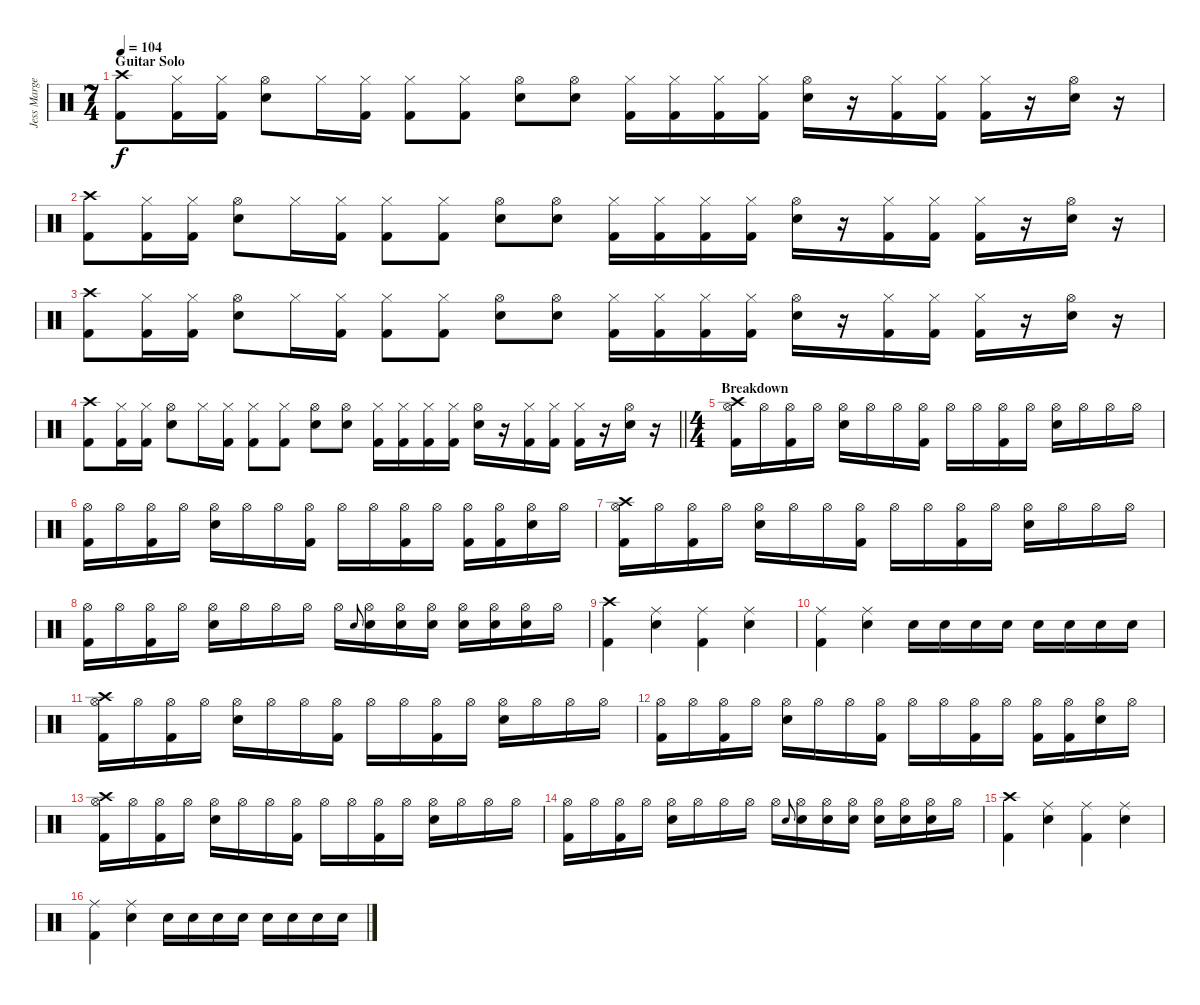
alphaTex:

\track ("Jess Margera" "Jess Marge") {instrument percussion}
\staff {score}
\articulation defaults
\ts (7 4)
\section ("" "Guitar Solo")
\tempo 104
\clef neutral
\ks c
("Crash high (hit)" "Kick (hit) 2").8{dy f} ("Hi-Hat (closed)" "Kick (hit) 2").16 ("Hi-Hat (closed)" "Kick (hit) 2").16 ("Hi-Hat (open)" "Electric Snare (hit)").8 "Hi-Hat (closed)".16 ("Hi-Hat (closed)" "Kick (hit) 2").16 ("Hi-Hat (closed)" "Kick (hit) 2").8 ("Hi-Hat (closed)" "Kick (hit) 2").8 ("Hi-Hat (open)" "Electric Snare (hit)").8 ("Hi-Hat (open)" "Electric Snare (hit)").8 ("Hi-Hat (closed)" "Kick (hit) 2").16 ("Hi-Hat (closed)" "Kick (hit) 2").16 ("Hi-Hat (closed)" "Kick (hit) 2").16 ("Hi-Hat (closed)" "Kick (hit) 2").16 ("Hi-Hat (open)" "Electric Snare (hit)").16 r.16 ("Hi-Hat (closed)" "Kick (hit) 2").16 ("Hi-Hat (closed)" "Kick (hit) 2").16 ("Hi-Hat (closed)" "Kick (hit) 2").16 r.16 ("Hi-Hat (open)" "Electric Snare (hit)").16 r.16 |
("Crash high (hit)" "Kick (hit) 2").8 ("Hi-Hat (closed)" "Kick (hit) 2").16 ("Hi-Hat (closed)" "Kick (hit) 2").16 ("Hi-Hat (open)" "Electric Snare (hit)").8 "Hi-Hat (closed)".16 ("Hi-Hat (closed)" "Kick (hit) 2").16 ("Hi-Hat (closed)" "Kick (hit) 2").8 ("Hi-Hat (closed)" "Kick (hit) 2").8 ("Hi-Hat (open)" "Electric Snare (hit)").8 ("Hi-Hat (open)" "Electric Snare (hit)").8 ("Hi-Hat (closed)" "Kick (hit) 2").16 ("Hi-Hat (closed)" "Kick (hit) 2").16 ("Hi-Hat (closed)" "Kick (hit) 2").16 ("Hi-Hat (closed)" "Kick (hit) 2").16 ("Hi-Hat (open)" "Electric Snare (hit)").16 r.16 ("Hi-Hat (closed)" "Kick (hit) 2").16 ("Hi-Hat (closed)" "Kick (hit) 2").16 ("Hi-Hat (closed)" "Kick (hit) 2").16 r.16 ("Hi-Hat (open)" "Electric Snare (hit)").16 r.16 |
("Crash high (hit)" "Kick (hit) 2").8 ("Hi-Hat (closed)" "Kick (hit) 2").16 ("Hi-Hat (closed)" "Kick (hit) 2").16 ("Hi-Hat (open)" "Electric Snare (hit)").8 "Hi-Hat (closed)".16 ("Hi-Hat (closed)" "Kick (hit) 2").16 ("Hi-Hat (closed)" "Kick (hit) 2").8 ("Hi-Hat (closed)" "Kick (hit) 2").8 ("Hi-Hat (open)" "Electric Snare (hit)").8 ("Hi-Hat (open)" "Electric Snare (hit)").8 ("Hi-Hat (closed)" "Kick (hit) 2").16 ("Hi-Hat (closed)" "Kick (hit) 2").16 ("Hi-Hat (closed)" "Kick (hit) 2").16 ("Hi-Hat (closed)" "Kick (hit) 2").16 ("Hi-Hat (open)" "Electric Snare (hit)").16 r.16 ("Hi-Hat (closed)" "Kick (hit) 2").16 ("Hi-Hat (closed)" "Kick (hit) 2").16 ("Hi-Hat (closed)" "Kick (hit) 2").16 r.16 ("Hi-Hat (open)" "Electric Snare (hit)").16 r.16 |
\barLineRight lightlight
("Crash high (hit)" "Kick (hit) 2").8 ("Hi-Hat (closed)" "Kick (hit) 2").16 ("Hi-Hat (closed)" "Kick (hit) 2").16 ("Hi-Hat (open)" "Electric Snare (hit)").8 "Hi-Hat (closed)".16 ("Hi-Hat (closed)" "Kick (hit) 2").16 ("Hi-Hat (closed)" "Kick (hit) 2").8 ("Hi-Hat (closed)" "Kick (hit) 2").8 ("Hi-Hat (open)" "Electric Snare (hit)").8 ("Hi-Hat (open)" "Electric Snare (hit)").8 ("Hi-Hat (closed)" "Kick (hit) 2").16 ("Hi-Hat (closed)" "Kick (hit) 2").16 ("Hi-Hat (closed)" "Kick (hit) 2").16 ("Hi-Hat (closed)" "Kick (hit) 2").16 ("Hi-Hat (open)" "Electric Snare (hit)").16 r.16 ("Hi-Hat (closed)" "Kick (hit) 2").16 ("Hi-Hat (closed)" "Kick (hit) 2").16 ("Hi-Hat (closed)" "Kick (hit) 2").16 r.16 ("Hi-Hat (open)" "Electric Snare (hit)").16 r.16 |
\ts (4 4)
\section ("" "Breakdown")
("Crash high (hit)" "Hi-Hat (open)" "Kick (hit) 2").16 "Hi-Hat (open)".16 ("Hi-Hat (open)" "Kick (hit) 2").16 "Hi-Hat (open)".16 ("Hi-Hat (open)" "Electric Snare (hit)").16 "Hi-Hat (open)".16 "Hi-Hat (open)".16 ("Hi-Hat (open)" "Kick (hit) 2").16 "Hi-Hat (open)".16 "Hi-Hat (open)".16 ("Hi-Hat (open)" "Kick (hit) 2").16 "Hi-Hat (open)".16 ("Hi-Hat (open)" "Electric Snare (hit)").16 "Hi-Hat (open)".16 "Hi-Hat (open)".16 "Hi-Hat (open)".16 |
("Hi-Hat (open)" "Kick (hit) 2").16 "Hi-Hat (open)".16 ("Hi-Hat (open)" "Kick (hit) 2").16 "Hi-Hat (open)".16 ("Hi-Hat (open)" "Electric Snare (hit)").16 "Hi-Hat (open)".16 "Hi-Hat (open)".16 ("Hi-Hat (open)" "Kick (hit) 2").16 "Hi-Hat (open)".16 "Hi-Hat (open)".16 ("Hi-Hat (open)" "Kick (hit) 2").16 "Hi-Hat (open)".16 ("Hi-Hat (open)" "Kick (hit) 2").16 ("Hi-Hat (open)" "Kick (hit) 2").16 ("Hi-Hat (open)" "Electric Snare (hit)").16 "Hi-Hat (open)".16 |
("Crash high (hit)" "Hi-Hat (open)" "Kick (hit) 2").16 "Hi-Hat (open)".16 ("Hi-Hat (open)" "Kick (hit) 2").16 "Hi-Hat (open)".16 ("Hi-Hat (open)" "Electric Snare (hit)").16 "Hi-Hat (open)".16 "Hi-Hat (open)".16 ("Hi-Hat (open)" "Kick (hit) 2").16 "Hi-Hat (open)".16 "Hi-Hat (open)".16 ("Hi-Hat (open)" "Kick (hit) 2").16 "Hi-Hat (open)".16 ("Hi-Hat (open)" "Electric Snare (hit)").16 "Hi-Hat (open)".16 "Hi-Hat (open)".16 "Hi-Hat (open)".16 |
("Hi-Hat (open)" "Kick (hit) 2").16 "Hi-Hat (open)".16 ("Hi-Hat (open)" "Kick (hit) 2").16 "Hi-Hat (open)".16 ("Hi-Hat (open)" "Electric Snare (hit)").16 "Hi-Hat (open)".16 "Hi-Hat (open)".16 "Hi-Hat (open)".16 "Hi-Hat (open)".16 "Electric Snare (hit)".8{gr onbeat} ("Hi-Hat (open)" "Electric Snare (hit)").16 ("Hi-Hat (open)" "Electric Snare (hit)").16 ("Hi-Hat (open)" "Electric Snare (hit)").16 ("Hi-Hat (open)" "Electric Snare (hit)").16 ("Hi-Hat (open)" "Electric Snare (hit)").16 ("Hi-Hat (open)" "Electric Snare (hit)").16 "Hi-Hat (open)".16 |
("Crash high (hit)" "Kick (hit) 2").4 ("Ride (middle)" "Electric Snare (hit)").4 ("Ride (middle)" "Kick (hit) 2").4 ("Ride (middle)" "Electric Snare (hit)").4 |
("Ride (middle)" "Kick (hit) 2").4 ("Ride (middle)" "Electric Snare (hit)").4 "Electric Snare (hit)".16 "Electric Snare (hit)".16 "Electric Snare (hit)".16 "Electric Snare (hit)".16 "Electric Snare (hit)".16 "Electric Snare (hit)".16 "Electric Snare (hit)".16 "Electric Snare (hit)".16 |
("Crash high (hit)" "Hi-Hat (open)" "Kick (hit) 2").16 "Hi-Hat (open)".16 ("Hi-Hat (open)" "Kick (hit) 2").16 "Hi-Hat (open)".16 ("Hi-Hat (open)" "Electric Snare (hit)").16 "Hi-Hat (open)".16 "Hi-Hat (open)".16 ("Hi-Hat (open)" "Kick (hit) 2").16 "Hi-Hat (open)".16 "Hi-Hat (open)".16 ("Hi-Hat (open)" "Kick (hit) 2").16 "Hi-Hat (open)".16 ("Hi-Hat (open)" "Electric Snare (hit)").16 "Hi-Hat (open)".16 "Hi-Hat (open)".16 "Hi-Hat (open)".16 |
("Hi-Hat (open)" "Kick (hit) 2").16 "Hi-Hat (open)".16 ("Hi-Hat (open)" "Kick (hit) 2").16 "Hi-Hat (open)".16 ("Hi-Hat (open)" "Electric Snare (hit)").16 "Hi-Hat (open)".16 "Hi-Hat (open)".16 ("Hi-Hat (open)" "Kick (hit) 2").16 "Hi-Hat (open)".16 "Hi-Hat (open)".16 ("Hi-Hat (open)" "Kick (hit) 2").16 "Hi-Hat (open)".16 ("Hi-Hat (open)" "Kick (hit) 2").16 ("Hi-Hat (open)" "Kick (hit) 2").16 ("Hi-Hat (open)" "Electric Snare (hit)").16 "Hi-Hat (open)".16 |
("Crash high (hit)" "Hi-Hat (open)" "Kick (hit) 2").16 "Hi-Hat (open)".16 ("Hi-Hat (open)" "Kick (hit) 2").16 "Hi-Hat (open)".16 ("Hi-Hat (open)" "Electric Snare (hit)").16 "Hi-Hat (open)".16 "Hi-Hat (open)".16 ("Hi-Hat (open)" "Kick (hit) 2").16 "Hi-Hat (open)".16 "Hi-Hat (open)".16 ("Hi-Hat (open)" "Kick (hit) 2").16 "Hi-Hat (open)".16 ("Hi-Hat (open)" "Electric Snare (hit)").16 "Hi-Hat (open)".16 "Hi-Hat (open)".16 "Hi-Hat (open)".16 |
("Hi-Hat (open)" "Kick (hit) 2").16 "Hi-Hat (open)".16 ("Hi-Hat (open)" "Kick (hit) 2").16 "Hi-Hat (open)".16 ("Hi-Hat (open)" "Electric Snare (hit)").16 "Hi-Hat (open)".16 "Hi-Hat (open)".16 "Hi-Hat (open)".16 "Hi-Hat (open)".16 "Electric Snare (hit)".8{gr onbeat} ("Hi-Hat (open)" "Electric Snare (hit)").16 ("Hi-Hat (open)" "Electric Snare (hit)").16 ("Hi-Hat (open)" "Electric Snare (hit)").16 ("Hi-Hat (open)" "Electric Snare (hit)").16 ("Hi-Hat (open)" "Electric Snare (hit)").16 ("Hi-Hat (open)" "Electric Snare (hit)").16 "Hi-Hat (open)".16 |
("Crash high (hit)" "Kick (hit) 2").4 ("Ride (middle)" "Electric Snare (hit)").4 ("Ride (middle)" "Kick (hit) 2").4 ("Ride (middle)" "Electric Snare (hit)").4 |
("Ride (middle)" "Kick (hit) 2").4 ("Ride (middle)" "Electric Snare (hit)").4 "Electric Snare (hit)".16 "Electric Snare (hit)".16 "Electric Snare (hit)".16 "Electric Snare (hit)".16 "Electric Snare (hit)".16 "Electric Snare (hit)".16 "Electric Snare (hit)".16 "Electric Snare (hit)".16
